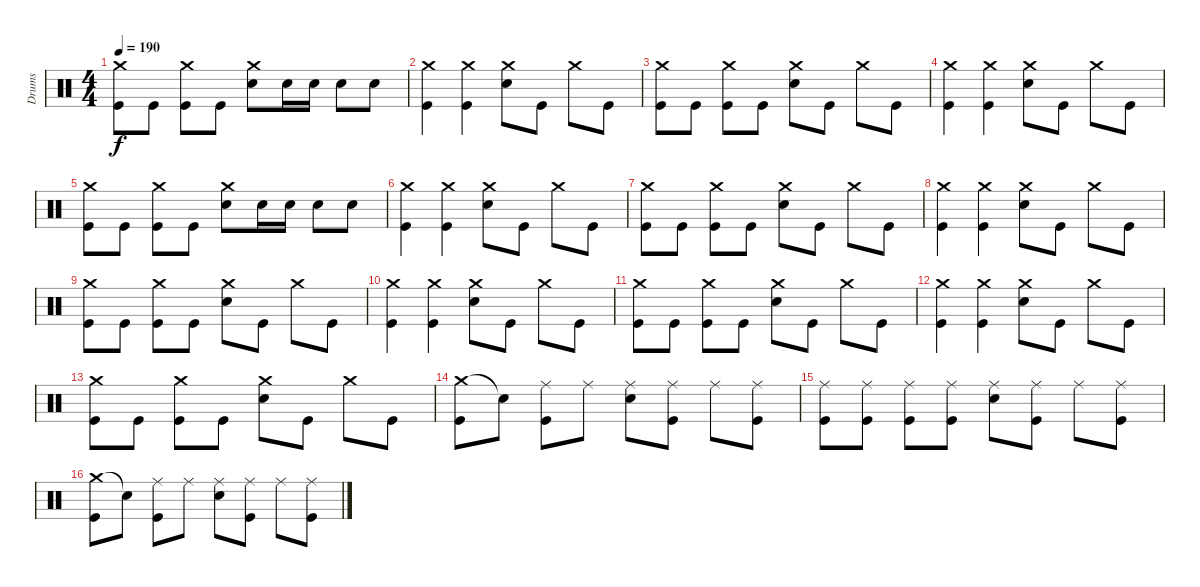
\track ("Drums" "Drums") {instrument percussion}
\staff {score}
\articulation defaults
\ts (4 4)
\tempo 190
\clef neutral
\ks c
("Crash medium (hit)" "Kick (hit)").8{dy f} "Kick (hit)".8 ("Crash medium (hit)" "Kick (hit)").8 "Kick (hit)".8 ("Crash medium (hit)" "Electric Snare (hit)").8 "Electric Snare (hit)".16 "Electric Snare (hit)".16 "Electric Snare (hit)".8 "Electric Snare (hit)".8 |
("Crash medium (hit)" "Kick (hit)").4 ("Crash medium (hit)" "Kick (hit)").4 ("Crash medium (hit)" "Electric Snare (hit)").8 "Kick (hit)".8 "Crash medium (hit)".8 "Kick (hit)".8 |
("Crash medium (hit)" "Kick (hit)").8 "Kick (hit)".8 ("Crash medium (hit)" "Kick (hit)").8 "Kick (hit)".8 ("Crash medium (hit)" "Electric Snare (hit)").8 "Kick (hit)".8 "Crash medium (hit)".8 "Kick (hit)".8 |
("Crash medium (hit)" "Kick (hit)").4 ("Crash medium (hit)" "Kick (hit)").4 ("Crash medium (hit)" "Electric Snare (hit)").8 "Kick (hit)".8 "Crash medium (hit)".8 "Kick (hit)".8 |
("Crash medium (hit)" "Kick (hit)").8 "Kick (hit)".8 ("Crash medium (hit)" "Kick (hit)").8 "Kick (hit)".8 ("Crash medium (hit)" "Electric Snare (hit)").8 "Electric Snare (hit)".16 "Electric Snare (hit)".16 "Electric Snare (hit)".8 "Electric Snare (hit)".8 |
("Crash medium (hit)" "Kick (hit)").4 ("Crash medium (hit)" "Kick (hit)").4 ("Crash medium (hit)" "Electric Snare (hit)").8 "Kick (hit)".8 "Crash medium (hit)".8 "Kick (hit)".8 |
("Crash medium (hit)" "Kick (hit)").8 "Kick (hit)".8 ("Crash medium (hit)" "Kick (hit)").8 "Kick (hit)".8 ("Crash medium (hit)" "Electric Snare (hit)").8 "Kick (hit)".8 "Crash medium (hit)".8 "Kick (hit)".8 |
("Crash medium (hit)" "Kick (hit)").4 ("Crash medium (hit)" "Kick (hit)").4 ("Crash medium (hit)" "Electric Snare (hit)").8 "Kick (hit)".8 "Crash medium (hit)".8 "Kick (hit)".8 |
("Crash medium (hit)" "Kick (hit)").8 "Kick (hit)".8 ("Crash medium (hit)" "Kick (hit)").8 "Kick (hit)".8 ("Crash medium (hit)" "Electric Snare (hit)").8 "Kick (hit)".8 "Crash medium (hit)".8 "Kick (hit)".8 |
("Crash medium (hit)" "Kick (hit)").4 ("Crash medium (hit)" "Kick (hit)").4 ("Crash medium (hit)" "Electric Snare (hit)").8 "Kick (hit)".8 "Crash medium (hit)".8 "Kick (hit)".8 |
("Crash medium (hit)" "Kick (hit)").8 "Kick (hit)".8 ("Crash medium (hit)" "Kick (hit)").8 "Kick (hit)".8 ("Crash medium (hit)" "Electric Snare (hit)").8 "Kick (hit)".8 "Crash medium (hit)".8 "Kick (hit)".8 |
("Crash medium (hit)" "Kick (hit)").4 ("Crash medium (hit)" "Kick (hit)").4 ("Crash medium (hit)" "Electric Snare (hit)").8 "Kick (hit)".8 "Crash medium (hit)".8 "Kick (hit)".8 |
("Crash medium (hit)" "Kick (hit)").8 "Kick (hit)".8 ("Crash medium (hit)" "Kick (hit)").8 "Kick (hit)".8 ("Crash medium (hit)" "Electric Snare (hit)").8 "Kick (hit)".8 "Crash medium (hit)".8 "Kick (hit)".8 |
("Crash medium (hit)" "Kick (hit)").8 "Snare (hit)"{t}.8 ("Ride (middle)" "Kick (hit)").8 "Ride (middle)".8 ("Ride (middle)" "Electric Snare (hit)").8 ("Ride (middle)" "Kick (hit)").8 "Ride (middle)".8 ("Ride (middle)" "Kick (hit)").8 |
("Ride (middle)" "Kick (hit)").8 ("Ride (middle)" "Kick (hit)").8 ("Ride (middle)" "Kick (hit)").8 ("Ride (middle)" "Kick (hit)").8 ("Ride (middle)" "Electric Snare (hit)").8 ("Ride (middle)" "Kick (hit)").8 "Ride (middle)".8 ("Ride (middle)" "Kick (hit)").8 |
("Crash medium (hit)" "Kick (hit)").8 "Snare (hit)"{t}.8 ("Ride (middle)" "Kick (hit)").8 "Ride (middle)".8 ("Ride (middle)" "Electric Snare (hit)").8 ("Ride (middle)" "Kick (hit)").8 "Ride (middle)".8 ("Ride (middle)" "Kick (hit)").8
